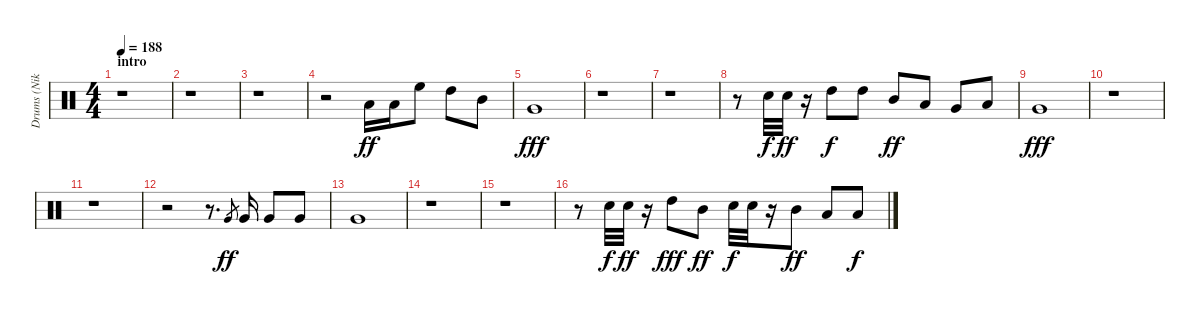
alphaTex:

\track ("Drums (Niko)" "Drums (Nik") {instrument percussion}
\staff {score}
\articulation defaults
\ts (4 4)
\section ("" "intro")
\tempo 188
\clef neutral
\ks c
r.1{dy ff} |
r.1 |
r.1 |
r.2 "Low Tom (hit)".16 "Low Tom (hit)".16 "High Floor Tom (hit)".8 "High Tom (hit)".8 "Mid Tom (hit)".8 |
"Very Low Tom (hit)".1{dy fff} |
r.1 |
r.1 |
r.8 "Electric Snare (hit)".32{dy f} "Electric Snare (hit)".32{dy ff} r.16 "High Tom (hit)".8{dy f} "High Tom (hit)".8 "Mid Tom (hit)".8{dy ff} "Low Tom (hit)".8 "Very Low Tom (hit)".8 "Low Floor Tom (hit)".8 |
"Very Low Tom (hit)".1{dy fff} |
r.1 |
r.1 |
r.2 r.8{d} "Very Low Tom (hit)".8{gr dy ff} "Very Low Tom (hit)".16 "Very Low Tom (hit)".8 "Very Low Tom (hit)".8 |
"Very Low Tom (hit)".1 |
r.1 |
r.1 |
r.8 "Electric Snare (hit)".32{dy f} "Electric Snare (hit)".32{dy ff} r.16 "High Tom (hit)".8{dy fff} "Mid Tom (hit)".8{dy ff} "Electric Snare (hit)".32{dy f} "Electric Snare (hit)".32 r.16 "Mid Tom (hit)".8{dy ff} "Low Tom (hit)".8 "Low Tom (hit)".8{dy f}
